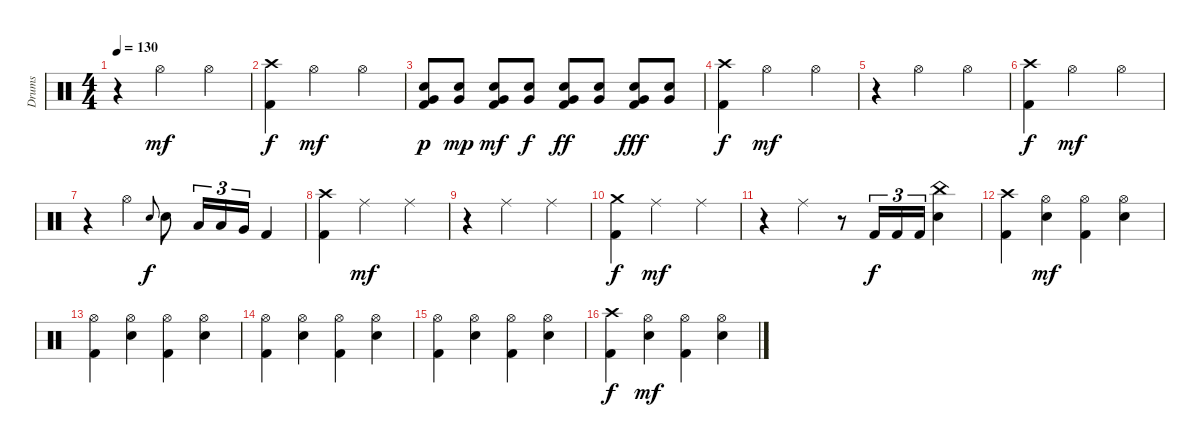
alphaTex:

\track ("Drums" "Drums") {instrument percussion}
\staff {score}
\articulation defaults
\ts (4 4)
\tempo 130
\clef neutral
\ks c
r.4{dy mf} "Hi-Hat (open)".2 "Hi-Hat (open)".4 |
("Crash high (hit)" "Kick (hit) 2").4{dy f} "Hi-Hat (open)".2{dy mf} "Hi-Hat (open)".4 |
("Electric Snare (hit)" "Very Low Tom (hit)" "Kick (hit) 2").8{dy p} ("Electric Snare (hit)" "Very Low Tom (hit)").8{dy mp} ("Electric Snare (hit)" "Very Low Tom (hit)" "Kick (hit) 2").8{dy mf} ("Electric Snare (hit)" "Very Low Tom (hit)").8{dy f} ("Electric Snare (hit)" "Very Low Tom (hit)" "Kick (hit) 2").8{dy ff} ("Electric Snare (hit)" "Very Low Tom (hit)").8 ("Electric Snare (hit)" "Very Low Tom (hit)" "Kick (hit) 2").8{dy fff} ("Electric Snare (hit)" "Very Low Tom (hit)").8 |
("Crash high (hit)" "Kick (hit) 2").4{dy f} "Hi-Hat (open)".2{dy mf} "Hi-Hat (open)".4 |
r.4 "Hi-Hat (open)".2 "Hi-Hat (open)".4 |
("Crash high (hit)" "Kick (hit) 2").4{dy f} "Hi-Hat (open)".2{dy mf} "Hi-Hat (open)".4 |
r.4 "Hi-Hat (open)".4 "Electric Snare (hit)".8{gr onbeat dy f} "Electric Snare (hit)".8 "Low Tom (hit)".16{tu (3 2)} "Low Tom (hit)".16{tu (3 2)} "Very Low Tom (hit)".16{tu (3 2)} "Kick (hit) 2".4 |
("Crash high (hit)" "Kick (hit) 2").4 "Ride (middle)".2{dy mf} "Ride (middle)".4 |
r.4 "Ride (middle)".2 "Ride (middle)".4 |
("Crash medium (hit)" "Kick (hit) 2").4{dy f} "Ride (middle)".2{dy mf} "Ride (middle)".4 |
r.4 "Ride (middle)".4 r.8 "Kick (hit) 2".16{tu (3 2) dy f} "Kick (hit) 2".16{tu (3 2)} "Kick (hit) 2".16{tu (3 2)} ("China (hit)" "Electric Snare (hit)").4 |
("Crash high (hit)" "Kick (hit) 2").4 ("Hi-Hat (open)" "Electric Snare (hit)").4{dy mf} ("Hi-Hat (open)" "Kick (hit) 2").4 ("Hi-Hat (open)" "Electric Snare (hit)").4 |
("Hi-Hat (open)" "Kick (hit) 2").4 ("Hi-Hat (open)" "Electric Snare (hit)").4 ("Hi-Hat (open)" "Kick (hit) 2").4 ("Hi-Hat (open)" "Electric Snare (hit)").4 |
("Hi-Hat (open)" "Kick (hit) 2").4 ("Hi-Hat (open)" "Electric Snare (hit)").4 ("Hi-Hat (open)" "Kick (hit) 2").4 ("Hi-Hat (open)" "Electric Snare (hit)").4 |
("Hi-Hat (open)" "Kick (hit) 2").4 ("Hi-Hat (open)" "Electric Snare (hit)").4 ("Hi-Hat (open)" "Kick (hit) 2").4 ("Hi-Hat (open)" "Electric Snare (hit)").4 |
("Crash high (hit)" "Kick (hit) 2").4{dy f} ("Hi-Hat (open)" "Electric Snare (hit)").4{dy mf} ("Hi-Hat (open)" "Kick (hit) 2").4 ("Hi-Hat (open)" "Electric Snare (hit)").4
